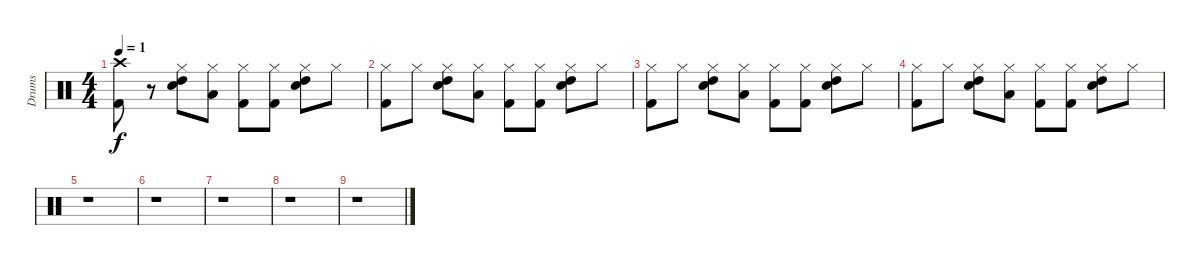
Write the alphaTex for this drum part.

\track ("Drums" "Drums") {instrument percussion}
\staff {score}
\articulation defaults
\ts (4 4)
\tempo 1
\clef neutral
\ks c
("Crash high (hit)" "Kick (hit) 2").8{dy f} r.8 ("Hi-Hat (closed)" "Snare (hit) 2" "High Tom (hit)").8 ("Hi-Hat (closed)" "Low Tom (hit)").8 ("Hi-Hat (closed)" "Kick (hit) 2").8 ("Hi-Hat (closed)" "Kick (hit) 2").8 ("Hi-Hat (closed)" "Snare (hit) 2" "High Tom (hit)").8 "Hi-Hat (closed)".8 |
("Hi-Hat (closed)" "Kick (hit) 2").8 "Hi-Hat (closed)".8 ("Hi-Hat (closed)" "Snare (hit) 2" "High Tom (hit)").8 ("Hi-Hat (closed)" "Low Tom (hit)").8 ("Hi-Hat (closed)" "Kick (hit) 2").8 ("Hi-Hat (closed)" "Kick (hit) 2").8 ("Hi-Hat (closed)" "Snare (hit) 2" "High Tom (hit)").8 "Hi-Hat (closed)".8 |
("Hi-Hat (closed)" "Kick (hit) 2").8 "Hi-Hat (closed)".8 ("Hi-Hat (closed)" "Snare (hit) 2" "High Tom (hit)").8 ("Hi-Hat (closed)" "Low Tom (hit)").8 ("Hi-Hat (closed)" "Kick (hit) 2").8 ("Hi-Hat (closed)" "Kick (hit) 2").8 ("Hi-Hat (closed)" "Snare (hit) 2" "High Tom (hit)").8 "Hi-Hat (closed)".8 |
("Hi-Hat (closed)" "Kick (hit) 2").8 "Hi-Hat (closed)".8 ("Hi-Hat (closed)" "Snare (hit) 2" "High Tom (hit)").8 ("Hi-Hat (closed)" "Low Tom (hit)").8 ("Hi-Hat (closed)" "Kick (hit) 2").8 ("Hi-Hat (closed)" "Kick (hit) 2").8 ("Hi-Hat (closed)" "Snare (hit) 2" "High Tom (hit)").8 "Hi-Hat (closed)".8 |
r.1 |
r.1 |
r.1 |
r.1 |
r.1
